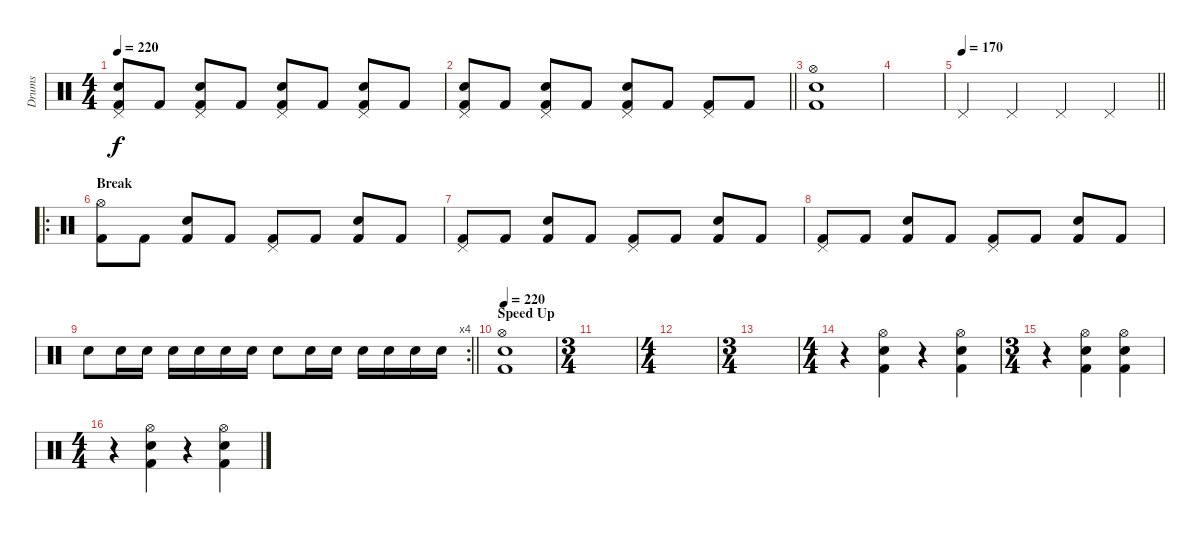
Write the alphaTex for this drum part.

\track ("Drums" "Drums") {instrument percussion}
\staff {score}
\articulation defaults
\ts (4 4)
\tempo 220
\clef neutral
\ks c
("Pedal Hi-Hat (hit)" "Snare (hit) 2" "Kick (hit) 2").8{dy f} "Kick (hit) 2".8 ("Pedal Hi-Hat (hit)" "Snare (hit) 2" "Kick (hit) 2").8 "Kick (hit) 2".8 ("Pedal Hi-Hat (hit)" "Snare (hit) 2" "Kick (hit) 2").8 "Kick (hit) 2".8 ("Pedal Hi-Hat (hit)" "Snare (hit) 2" "Kick (hit) 2").8 "Kick (hit) 2".8 |
\barLineRight lightlight
("Pedal Hi-Hat (hit)" "Snare (hit) 2" "Kick (hit) 2").8 "Kick (hit) 2".8 ("Pedal Hi-Hat (hit)" "Snare (hit) 2" "Kick (hit) 2").8 "Kick (hit) 2".8 ("Pedal Hi-Hat (hit)" "Snare (hit) 2" "Kick (hit) 2").8 "Kick (hit) 2".8 ("Pedal Hi-Hat (hit)" "Kick (hit) 2").8 "Kick (hit) 2".8 |
("Hi-Hat (open)" "Snare (hit) 2" "Kick (hit) 2").1 |
|
\tempo 170
\barLineRight lightlight "Pedal Hi-Hat (hit)".4 "Pedal Hi-Hat (hit)".4 "Pedal Hi-Hat (hit)".4 "Pedal Hi-Hat (hit)".4
|
\ro
\section ("" "Break")
("Hi-Hat (open)" "Kick (hit) 2").8 "Kick (hit) 2".8 ("Snare (hit) 2" "Kick (hit) 2").8 "Kick (hit) 2".8 ("Pedal Hi-Hat (hit)" "Kick (hit) 2").8 "Kick (hit) 2".8 ("Snare (hit) 2" "Kick (hit) 2").8 "Kick (hit) 2".8 |
("Pedal Hi-Hat (hit)" "Kick (hit) 2").8 "Kick (hit) 2".8 ("Snare (hit) 2" "Kick (hit) 2").8 "Kick (hit) 2".8 ("Pedal Hi-Hat (hit)" "Kick (hit) 2").8 "Kick (hit) 2".8 ("Snare (hit) 2" "Kick (hit) 2").8 "Kick (hit) 2".8 |
("Pedal Hi-Hat (hit)" "Kick (hit) 2").8 "Kick (hit) 2".8 ("Snare (hit) 2" "Kick (hit) 2").8 "Kick (hit) 2".8 ("Pedal Hi-Hat (hit)" "Kick (hit) 2").8 "Kick (hit) 2".8 ("Snare (hit) 2" "Kick (hit) 2").8 "Kick (hit) 2".8 |
\rc 4
\barLineRight lightlight "Snare (hit) 2".8 "Snare (hit) 2".16 "Snare (hit) 2".16 "Snare (hit) 2".16 "Snare (hit) 2".16 "Snare (hit) 2".16 "Snare (hit) 2".16 "Snare (hit) 2".8 "Snare (hit) 2".16 "Snare (hit) 2".16 "Snare (hit) 2".16 "Snare (hit) 2".16 "Snare (hit) 2".16 "Snare (hit) 2".16
|
\section ("" "Speed Up")
\tempo 220
("Hi-Hat (open)" "Snare (hit) 2" "Kick (hit) 2").1 |
\ts (3 4)
|
\ts (4 4)
|
\ts (3 4)
|
\ts (4 4)
r.4 ("Hi-Hat (open)" "Snare (hit) 2" "Kick (hit) 2").4 r.4 ("Hi-Hat (open)" "Snare (hit) 2" "Kick (hit) 2").4 |
\ts (3 4)
r.4 ("Hi-Hat (open)" "Snare (hit) 2" "Kick (hit) 2").4 ("Hi-Hat (open)" "Snare (hit) 2" "Kick (hit) 2").4 |
\ts (4 4)
r.4 ("Hi-Hat (open)" "Snare (hit) 2" "Kick (hit) 2").4 r.4 ("Hi-Hat (open)" "Snare (hit) 2" "Kick (hit) 2").4
